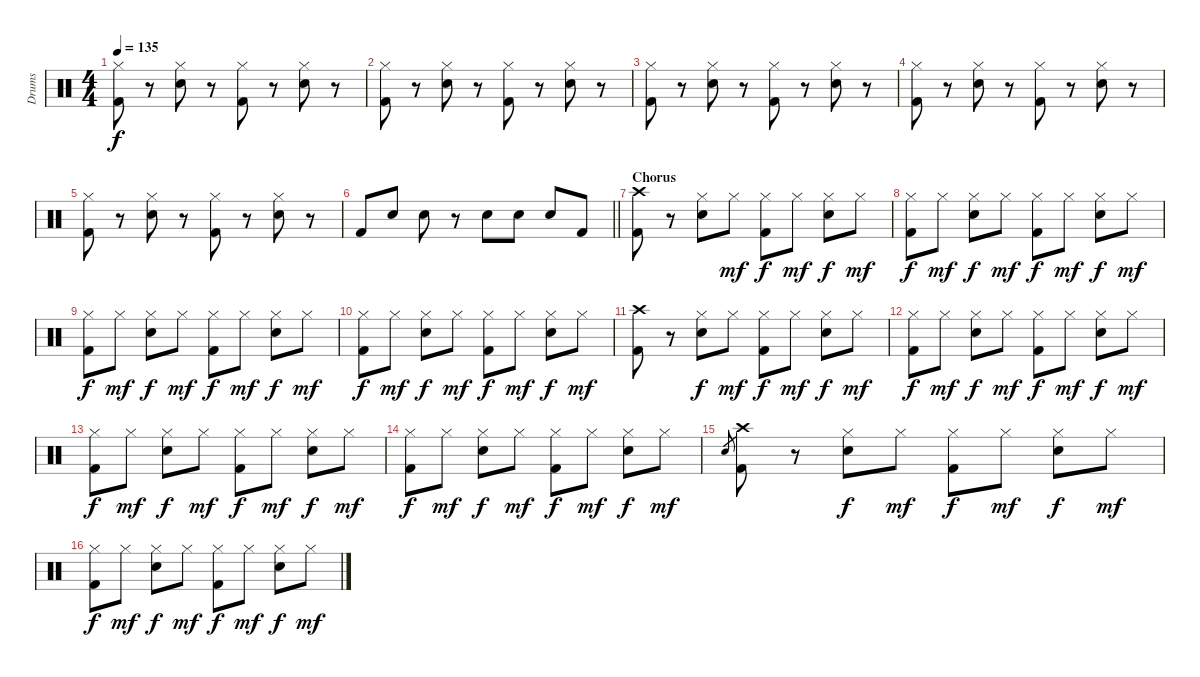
\track ("Drums" "Drums") {instrument percussion}
\staff {score}
\articulation defaults
\ts (4 4)
\tempo 135
\clef neutral
\ks c
("Hi-Hat (closed)" "Kick (hit) 2").8{dy f} r.8 ("Hi-Hat (closed)" "Snare (hit) 2").8 r.8 ("Hi-Hat (closed)" "Kick (hit) 2").8 r.8 ("Hi-Hat (closed)" "Snare (hit) 2").8 r.8 |
("Hi-Hat (closed)" "Kick (hit) 2").8 r.8 ("Hi-Hat (closed)" "Snare (hit) 2").8 r.8 ("Hi-Hat (closed)" "Kick (hit) 2").8 r.8 ("Hi-Hat (closed)" "Snare (hit) 2").8 r.8 |
("Hi-Hat (closed)" "Kick (hit) 2").8 r.8 ("Hi-Hat (closed)" "Snare (hit) 2").8 r.8 ("Hi-Hat (closed)" "Kick (hit) 2").8 r.8 ("Hi-Hat (closed)" "Snare (hit) 2").8 r.8 |
("Hi-Hat (closed)" "Kick (hit) 2").8 r.8 ("Hi-Hat (closed)" "Snare (hit) 2").8 r.8 ("Hi-Hat (closed)" "Kick (hit) 2").8 r.8 ("Hi-Hat (closed)" "Snare (hit) 2").8 r.8 |
("Hi-Hat (closed)" "Kick (hit) 2").8 r.8 ("Hi-Hat (closed)" "Snare (hit) 2").8 r.8 ("Hi-Hat (closed)" "Kick (hit) 2").8 r.8 ("Hi-Hat (closed)" "Snare (hit) 2").8 r.8 |
\barLineRight lightlight "Kick (hit) 2".8 "Snare (hit) 2".8 "Snare (hit) 2".8
r.8 "Snare (hit) 2".8 "Snare (hit) 2".8 "Snare (hit) 2".8 "Kick (hit) 2".8 |
\section ("" "Chorus")
("Crash high (hit)" "Kick (hit) 2").8 r.8 ("Hi-Hat (closed)" "Snare (hit) 2").8 "Hi-Hat (closed)".8{dy mf} ("Hi-Hat (closed)" "Kick (hit) 2").8{dy f} "Hi-Hat (closed)".8{dy mf} ("Hi-Hat (closed)" "Snare (hit) 2").8{dy f} "Hi-Hat (closed)".8{dy mf} |
("Hi-Hat (closed)" "Kick (hit) 2").8{dy f} "Hi-Hat (closed)".8{dy mf} ("Hi-Hat (closed)" "Snare (hit) 2").8{dy f} "Hi-Hat (closed)".8{dy mf} ("Hi-Hat (closed)" "Kick (hit) 2").8{dy f} "Hi-Hat (closed)".8{dy mf} ("Hi-Hat (closed)" "Snare (hit) 2").8{dy f} "Hi-Hat (closed)".8{dy mf} |
("Hi-Hat (closed)" "Kick (hit) 2").8{dy f} "Hi-Hat (closed)".8{dy mf} ("Hi-Hat (closed)" "Snare (hit) 2").8{dy f} "Hi-Hat (closed)".8{dy mf} ("Hi-Hat (closed)" "Kick (hit) 2").8{dy f} "Hi-Hat (closed)".8{dy mf} ("Hi-Hat (closed)" "Snare (hit) 2").8{dy f} "Hi-Hat (closed)".8{dy mf} |
("Hi-Hat (closed)" "Kick (hit) 2").8{dy f} "Hi-Hat (closed)".8{dy mf} ("Hi-Hat (closed)" "Snare (hit) 2").8{dy f} "Hi-Hat (closed)".8{dy mf} ("Hi-Hat (closed)" "Kick (hit) 2").8{dy f} "Hi-Hat (closed)".8{dy mf} ("Hi-Hat (closed)" "Snare (hit) 2").8{dy f} "Hi-Hat (closed)".8{dy mf} |
("Crash high (hit)" "Kick (hit) 2").8 r.8 ("Hi-Hat (closed)" "Snare (hit) 2").8{dy f} "Hi-Hat (closed)".8{dy mf} ("Hi-Hat (closed)" "Kick (hit) 2").8{dy f} "Hi-Hat (closed)".8{dy mf} ("Hi-Hat (closed)" "Snare (hit) 2").8{dy f} "Hi-Hat (closed)".8{dy mf} |
("Hi-Hat (closed)" "Kick (hit) 2").8{dy f} "Hi-Hat (closed)".8{dy mf} ("Hi-Hat (closed)" "Snare (hit) 2").8{dy f} "Hi-Hat (closed)".8{dy mf} ("Hi-Hat (closed)" "Kick (hit) 2").8{dy f} "Hi-Hat (closed)".8{dy mf} ("Hi-Hat (closed)" "Snare (hit) 2").8{dy f} "Hi-Hat (closed)".8{dy mf} |
("Hi-Hat (closed)" "Kick (hit) 2").8{dy f} "Hi-Hat (closed)".8{dy mf} ("Hi-Hat (closed)" "Snare (hit) 2").8{dy f} "Hi-Hat (closed)".8{dy mf} ("Hi-Hat (closed)" "Kick (hit) 2").8{dy f} "Hi-Hat (closed)".8{dy mf} ("Hi-Hat (closed)" "Snare (hit) 2").8{dy f} "Hi-Hat (closed)".8{dy mf} |
("Hi-Hat (closed)" "Kick (hit) 2").8{dy f} "Hi-Hat (closed)".8{dy mf} ("Hi-Hat (closed)" "Snare (hit) 2").8{dy f} "Hi-Hat (closed)".8{dy mf} ("Hi-Hat (closed)" "Kick (hit) 2").8{dy f} "Hi-Hat (closed)".8{dy mf} ("Hi-Hat (closed)" "Snare (hit) 2").8{dy f} "Hi-Hat (closed)".8{dy mf} |
"Snare (hit) 2".8{gr} ("Crash high (hit)" "Kick (hit) 2").8 r.8 ("Hi-Hat (closed)" "Snare (hit) 2").8{dy f} "Hi-Hat (closed)".8{dy mf} ("Hi-Hat (closed)" "Kick (hit) 2").8{dy f} "Hi-Hat (closed)".8{dy mf} ("Hi-Hat (closed)" "Snare (hit) 2").8{dy f} "Hi-Hat (closed)".8{dy mf} |
("Hi-Hat (closed)" "Kick (hit) 2").8{dy f} "Hi-Hat (closed)".8{dy mf} ("Hi-Hat (closed)" "Snare (hit) 2").8{dy f} "Hi-Hat (closed)".8{dy mf} ("Hi-Hat (closed)" "Kick (hit) 2").8{dy f} "Hi-Hat (closed)".8{dy mf} ("Hi-Hat (closed)" "Snare (hit) 2").8{dy f} "Hi-Hat (closed)".8{dy mf}
